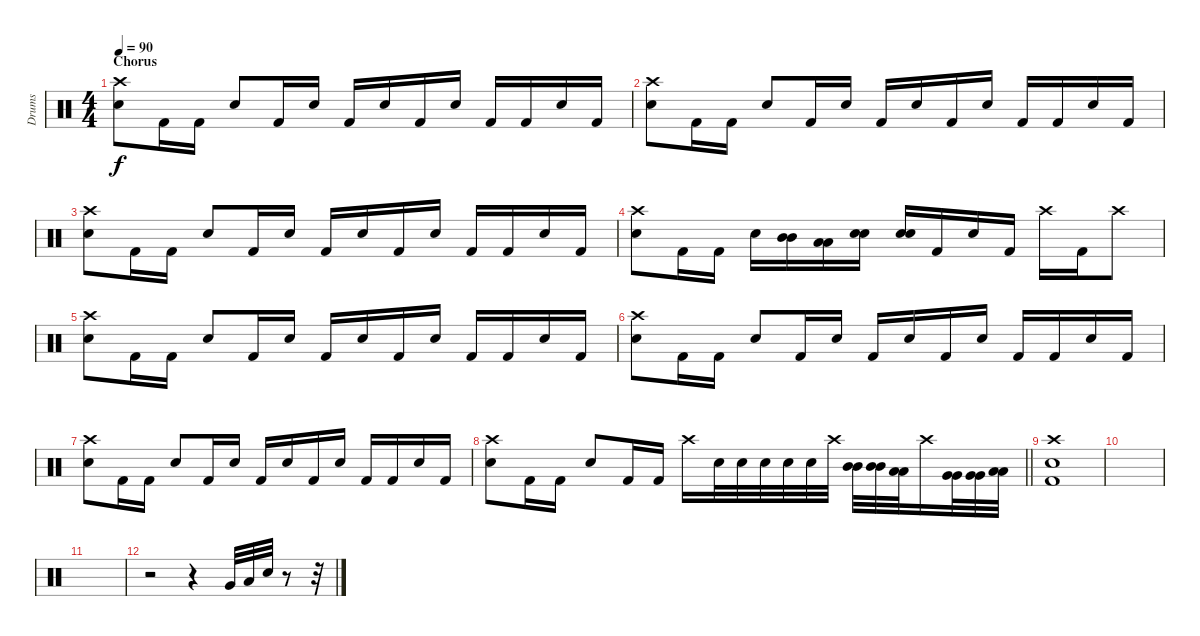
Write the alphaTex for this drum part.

\track ("Drums" "Drums") {instrument percussion}
\staff {score}
\articulation defaults
\ts (4 4)
\section ("" "Chorus")
\tempo 90
\clef neutral
\ks c
("Electric Snare (hit)" "Crash high (hit)").8{dy f} "Kick (hit) 2".16 "Kick (hit) 2".16 "Electric Snare (hit)".8 "Kick (hit) 2".16 "Electric Snare (hit)".16 "Kick (hit) 2".16 "Electric Snare (hit)".16 "Kick (hit) 2".16 "Electric Snare (hit)".16 "Kick (hit) 2".16 "Kick (hit) 2".16 "Electric Snare (hit)".16 "Kick (hit) 2".16 |
("Electric Snare (hit)" "Crash high (hit)").8 "Kick (hit) 2".16 "Kick (hit) 2".16 "Electric Snare (hit)".8 "Kick (hit) 2".16 "Electric Snare (hit)".16 "Kick (hit) 2".16 "Electric Snare (hit)".16 "Kick (hit) 2".16 "Electric Snare (hit)".16 "Kick (hit) 2".16 "Kick (hit) 2".16 "Electric Snare (hit)".16 "Kick (hit) 2".16 |
("Electric Snare (hit)" "Crash high (hit)").8 "Kick (hit) 2".16 "Kick (hit) 2".16 "Electric Snare (hit)".8 "Kick (hit) 2".16 "Electric Snare (hit)".16 "Kick (hit) 2".16 "Electric Snare (hit)".16 "Kick (hit) 2".16 "Electric Snare (hit)".16 "Kick (hit) 2".16 "Kick (hit) 2".16 "Electric Snare (hit)".16 "Kick (hit) 2".16 |
("Electric Snare (hit)" "Crash high (hit)").8 "Kick (hit) 2".16 "Kick (hit) 2".16 "Electric Snare (hit)".16 ("Mid Tom (hit)" "Mid Tom (hit)").16 ("Low Tom (hit)" "Low Tom (hit)").16 ("Electric Snare (hit)" "Electric Snare (hit)").16 ("Snare (hit) 2" "Snare (hit) 2").16 "Kick (hit) 2".16 "Electric Snare (hit)".16 "Kick (hit) 2".16 "Crash high (hit)".16 "Kick (hit) 2".16 "Crash high (hit)".8 |
("Electric Snare (hit)" "Crash high (hit)").8 "Kick (hit) 2".16 "Kick (hit) 2".16 "Electric Snare (hit)".8 "Kick (hit) 2".16 "Electric Snare (hit)".16 "Kick (hit) 2".16 "Electric Snare (hit)".16 "Kick (hit) 2".16 "Electric Snare (hit)".16 "Kick (hit) 2".16 "Kick (hit) 2".16 "Electric Snare (hit)".16 "Kick (hit) 2".16 |
("Electric Snare (hit)" "Crash high (hit)").8 "Kick (hit) 2".16 "Kick (hit) 2".16 "Electric Snare (hit)".8 "Kick (hit) 2".16 "Electric Snare (hit)".16 "Kick (hit) 2".16 "Electric Snare (hit)".16 "Kick (hit) 2".16 "Electric Snare (hit)".16 "Kick (hit) 2".16 "Kick (hit) 2".16 "Electric Snare (hit)".16 "Kick (hit) 2".16 |
("Electric Snare (hit)" "Crash high (hit)").8 "Kick (hit) 2".16 "Kick (hit) 2".16 "Electric Snare (hit)".8 "Kick (hit) 2".16 "Electric Snare (hit)".16 "Kick (hit) 2".16 "Electric Snare (hit)".16 "Kick (hit) 2".16 "Electric Snare (hit)".16 "Kick (hit) 2".16 "Kick (hit) 2".16 "Electric Snare (hit)".16 "Kick (hit) 2".16 |
\barLineRight lightlight
("Electric Snare (hit)" "Crash high (hit)").8 "Kick (hit) 2".16 "Kick (hit) 2".16 "Electric Snare (hit)".8 "Kick (hit) 2".16 "Kick (hit) 2".16 "Crash high (hit)".16 "Electric Snare (hit)".32 "Electric Snare (hit)".32 "Electric Snare (hit)".32 "Electric Snare (hit)".32 "Electric Snare (hit)".32 "Crash high (hit)".32 ("Mid Tom (hit)" "Mid Tom (hit)").32 ("Mid Tom (hit)" "Mid Tom (hit)").32 ("Low Tom (hit)" "Low Tom (hit)").32 "Crash high (hit)".16 ("Very Low Tom (hit)" "Very Low Tom (hit)").32 ("Very Low Tom (hit)" "Very Low Tom (hit)").32 ("Low Floor Tom (hit)" "Low Floor Tom (hit)").32 |
("Kick (hit) 2" "Electric Snare (hit)" "Crash high (hit)").1 |
|
|
r.2 r.4 "Very Low Tom (hit)".32 "Low Tom (hit)".32 "Electric Snare (hit)".32 r.8 r.32
